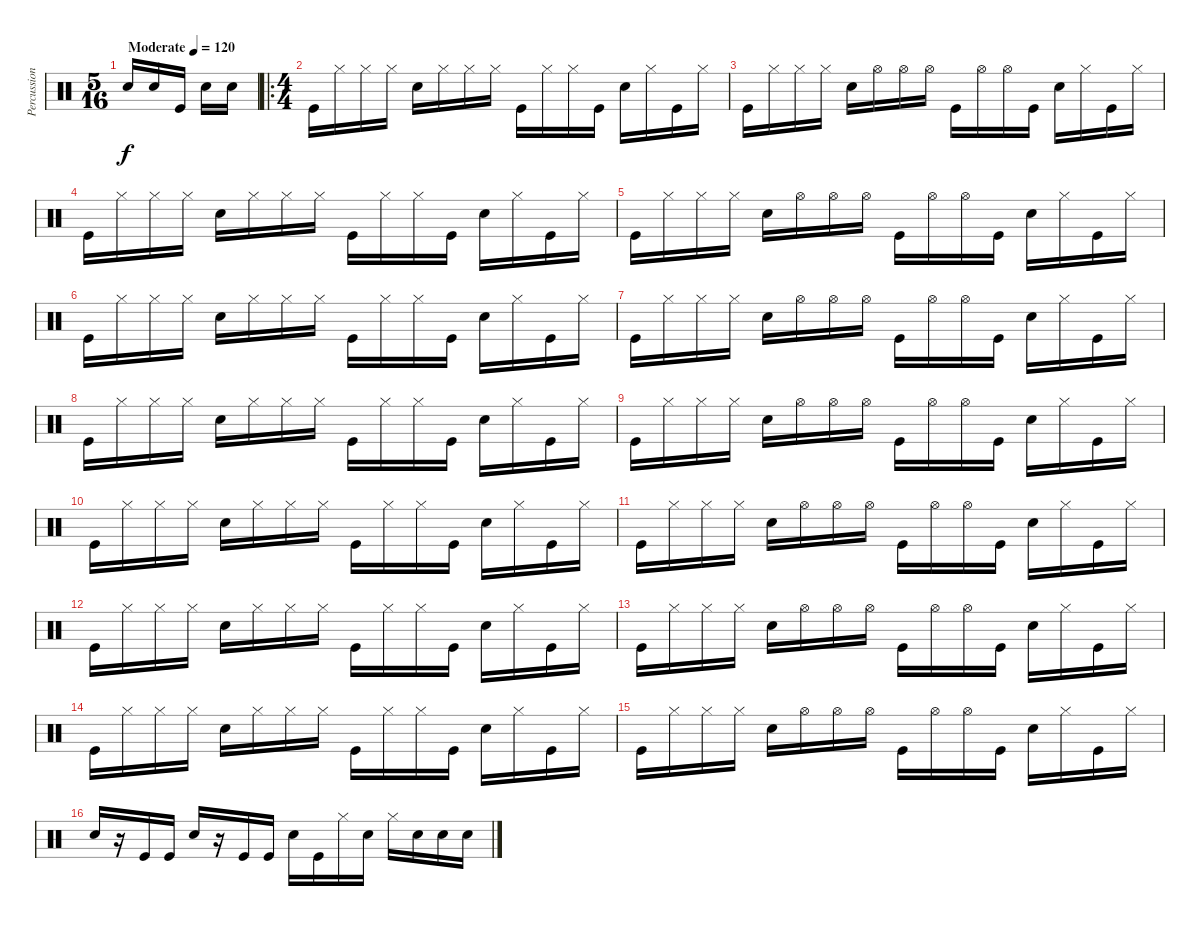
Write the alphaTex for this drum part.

\track ("Percussion" "Percussion") {instrument percussion}
\staff {score}
\articulation defaults
\ts (5 16)
\tempo (120 "Moderate")
\clef neutral
\ks c "Snare (hit) 2".16{dy f} "Snare (hit) 2".16 "Kick (hit)".16 "Snare (hit) 2".16 "Snare (hit) 2".16
|
\ro
\ts (4 4)
"Kick (hit)".16 "Hi-Hat (closed)".16 "Hi-Hat (closed)".16 "Hi-Hat (closed)".16 "Snare (hit) 2".16 "Hi-Hat (closed)".16 "Hi-Hat (closed)".16 "Hi-Hat (closed)".16 "Kick (hit)".16 "Hi-Hat (closed)".16 "Hi-Hat (closed)".16 "Kick (hit)".16 "Snare (hit) 2".16 "Hi-Hat (closed)".16 "Kick (hit)".16 "Hi-Hat (closed)".16 |
"Kick (hit)".16 "Hi-Hat (closed)".16 "Hi-Hat (closed)".16 "Hi-Hat (closed)".16 "Snare (hit) 2".16 "Hi-Hat (open)".16 "Hi-Hat (open)".16 "Hi-Hat (open)".16 "Kick (hit)".16 "Hi-Hat (open)".16 "Hi-Hat (open)".16 "Kick (hit)".16 "Snare (hit) 2".16 "Hi-Hat (closed)".16 "Kick (hit)".16 "Hi-Hat (closed)".16 |
"Kick (hit)".16 "Hi-Hat (closed)".16 "Hi-Hat (closed)".16 "Hi-Hat (closed)".16 "Snare (hit) 2".16 "Hi-Hat (closed)".16 "Hi-Hat (closed)".16 "Hi-Hat (closed)".16 "Kick (hit)".16 "Hi-Hat (closed)".16 "Hi-Hat (closed)".16 "Kick (hit)".16 "Snare (hit) 2".16 "Hi-Hat (closed)".16 "Kick (hit)".16 "Hi-Hat (closed)".16 |
"Kick (hit)".16 "Hi-Hat (closed)".16 "Hi-Hat (closed)".16 "Hi-Hat (closed)".16 "Snare (hit) 2".16 "Hi-Hat (open)".16 "Hi-Hat (open)".16 "Hi-Hat (open)".16 "Kick (hit)".16 "Hi-Hat (open)".16 "Hi-Hat (open)".16 "Kick (hit)".16 "Snare (hit) 2".16 "Hi-Hat (closed)".16 "Kick (hit)".16 "Hi-Hat (closed)".16 |
"Kick (hit)".16 "Hi-Hat (closed)".16 "Hi-Hat (closed)".16 "Hi-Hat (closed)".16 "Snare (hit) 2".16 "Hi-Hat (closed)".16 "Hi-Hat (closed)".16 "Hi-Hat (closed)".16 "Kick (hit)".16 "Hi-Hat (closed)".16 "Hi-Hat (closed)".16 "Kick (hit)".16 "Snare (hit) 2".16 "Hi-Hat (closed)".16 "Kick (hit)".16 "Hi-Hat (closed)".16 |
"Kick (hit)".16 "Hi-Hat (closed)".16 "Hi-Hat (closed)".16 "Hi-Hat (closed)".16 "Snare (hit) 2".16 "Hi-Hat (open)".16 "Hi-Hat (open)".16 "Hi-Hat (open)".16 "Kick (hit)".16 "Hi-Hat (open)".16 "Hi-Hat (open)".16 "Kick (hit)".16 "Snare (hit) 2".16 "Hi-Hat (closed)".16 "Kick (hit)".16 "Hi-Hat (closed)".16 |
"Kick (hit)".16 "Hi-Hat (closed)".16 "Hi-Hat (closed)".16 "Hi-Hat (closed)".16 "Snare (hit) 2".16 "Hi-Hat (closed)".16 "Hi-Hat (closed)".16 "Hi-Hat (closed)".16 "Kick (hit)".16 "Hi-Hat (closed)".16 "Hi-Hat (closed)".16 "Kick (hit)".16 "Snare (hit) 2".16 "Hi-Hat (closed)".16 "Kick (hit)".16 "Hi-Hat (closed)".16 |
"Kick (hit)".16 "Hi-Hat (closed)".16 "Hi-Hat (closed)".16 "Hi-Hat (closed)".16 "Snare (hit) 2".16 "Hi-Hat (open)".16 "Hi-Hat (open)".16 "Hi-Hat (open)".16 "Kick (hit)".16 "Hi-Hat (open)".16 "Hi-Hat (open)".16 "Kick (hit)".16 "Snare (hit) 2".16 "Hi-Hat (closed)".16 "Kick (hit)".16 "Hi-Hat (closed)".16 |
"Kick (hit)".16 "Hi-Hat (closed)".16 "Hi-Hat (closed)".16 "Hi-Hat (closed)".16 "Snare (hit) 2".16 "Hi-Hat (closed)".16 "Hi-Hat (closed)".16 "Hi-Hat (closed)".16 "Kick (hit)".16 "Hi-Hat (closed)".16 "Hi-Hat (closed)".16 "Kick (hit)".16 "Snare (hit) 2".16 "Hi-Hat (closed)".16 "Kick (hit)".16 "Hi-Hat (closed)".16 |
"Kick (hit)".16 "Hi-Hat (closed)".16 "Hi-Hat (closed)".16 "Hi-Hat (closed)".16 "Snare (hit) 2".16 "Hi-Hat (open)".16 "Hi-Hat (open)".16 "Hi-Hat (open)".16 "Kick (hit)".16 "Hi-Hat (open)".16 "Hi-Hat (open)".16 "Kick (hit)".16 "Snare (hit) 2".16 "Hi-Hat (closed)".16 "Kick (hit)".16 "Hi-Hat (closed)".16 |
"Kick (hit)".16 "Hi-Hat (closed)".16 "Hi-Hat (closed)".16 "Hi-Hat (closed)".16 "Snare (hit) 2".16 "Hi-Hat (closed)".16 "Hi-Hat (closed)".16 "Hi-Hat (closed)".16 "Kick (hit)".16 "Hi-Hat (closed)".16 "Hi-Hat (closed)".16 "Kick (hit)".16 "Snare (hit) 2".16 "Hi-Hat (closed)".16 "Kick (hit)".16 "Hi-Hat (closed)".16 |
"Kick (hit)".16 "Hi-Hat (closed)".16 "Hi-Hat (closed)".16 "Hi-Hat (closed)".16 "Snare (hit) 2".16 "Hi-Hat (open)".16 "Hi-Hat (open)".16 "Hi-Hat (open)".16 "Kick (hit)".16 "Hi-Hat (open)".16 "Hi-Hat (open)".16 "Kick (hit)".16 "Snare (hit) 2".16 "Hi-Hat (closed)".16 "Kick (hit)".16 "Hi-Hat (closed)".16 |
"Kick (hit)".16 "Hi-Hat (closed)".16 "Hi-Hat (closed)".16 "Hi-Hat (closed)".16 "Snare (hit) 2".16 "Hi-Hat (closed)".16 "Hi-Hat (closed)".16 "Hi-Hat (closed)".16 "Kick (hit)".16 "Hi-Hat (closed)".16 "Hi-Hat (closed)".16 "Kick (hit)".16 "Snare (hit) 2".16 "Hi-Hat (closed)".16 "Kick (hit)".16 "Hi-Hat (closed)".16 |
"Kick (hit)".16 "Hi-Hat (closed)".16 "Hi-Hat (closed)".16 "Hi-Hat (closed)".16 "Snare (hit) 2".16 "Hi-Hat (open)".16 "Hi-Hat (open)".16 "Hi-Hat (open)".16 "Kick (hit)".16 "Hi-Hat (open)".16 "Hi-Hat (open)".16 "Kick (hit)".16 "Snare (hit) 2".16 "Hi-Hat (closed)".16 "Kick (hit)".16 "Hi-Hat (closed)".16 |
"Snare (hit) 2".16 r.16 "Kick (hit)".16 "Kick (hit)".16 "Snare (hit) 2".16 r.16 "Kick (hit)".16 "Kick (hit)".16 "Snare (hit) 2".16 "Kick (hit)".16 "Hi-Hat (closed)".16 "Snare (hit) 2".16 "Hi-Hat (closed)".16 "Snare (hit) 2".16 "Snare (hit) 2".16 "Snare (hit) 2".16
